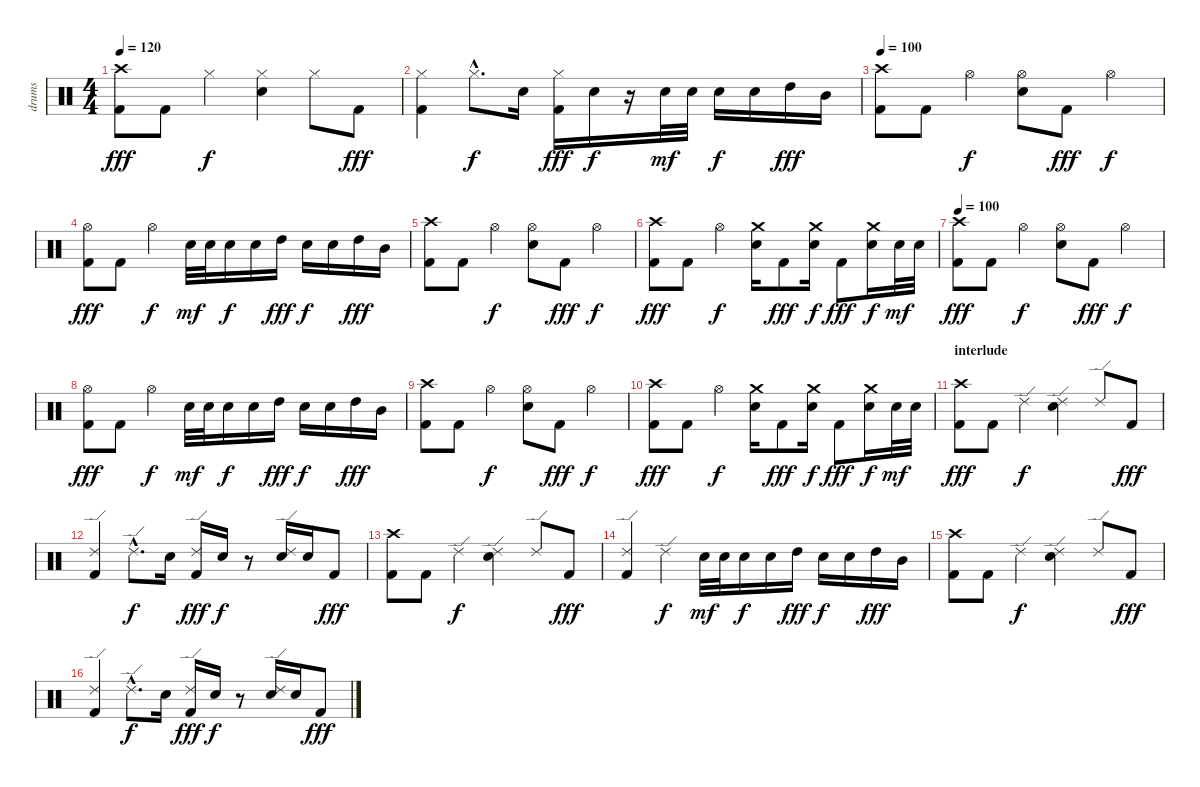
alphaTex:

\track ("drums" "drums") {instrument percussion}
\staff {score}
\articulation defaults
\ts (4 4)
\tempo 120
\clef neutral
\ks c
("Crash high (hit)" "Kick (hit) 2").8{dy fff} "Kick (hit) 2".8 "Hi-Hat (closed)".4{dy f} ("Hi-Hat (closed)" "Snare (hit) 2").4 "Hi-Hat (closed)".8 "Kick (hit) 2".8{dy fff} |
("Hi-Hat (closed)" "Kick (hit) 2").4 "Hi-Hat (closed)"{hac}.8{d dy f} "Snare (hit) 2".16 ("Hi-Hat (closed)" "Kick (hit) 2").16{dy fff} "Snare (hit) 2".16{dy f} r.16 "Snare (hit) 2".32{dy mf} "Snare (hit) 2".32 "Snare (hit) 2".16{dy f} "Snare (hit) 2".16 "High Tom (hit)".16{dy fff} "Mid Tom (hit)".16 |
\tempo 100
("Crash high (hit)" "Kick (hit) 2").8 "Kick (hit) 2".8 "Hi-Hat (open)".4{dy f} ("Hi-Hat (open)" "Snare (hit) 2").8 "Kick (hit) 2".8{dy fff} "Hi-Hat (open)".4{dy f} |
("Hi-Hat (open)" "Kick (hit) 2").8{dy fff} "Kick (hit) 2".8 "Hi-Hat (open)".4{dy f} "Snare (hit) 2".32{dy mf} "Snare (hit) 2".32 "Snare (hit) 2".16{dy f} "Snare (hit) 2".16 "High Tom (hit)".16{dy fff} "Snare (hit) 2".16{dy f} "Snare (hit) 2".16 "High Tom (hit)".16{dy fff} "Mid Tom (hit)".16 |
("Crash high (hit)" "Kick (hit) 2").8 "Kick (hit) 2".8 "Hi-Hat (open)".4{dy f} ("Hi-Hat (open)" "Snare (hit) 2").8 "Kick (hit) 2".8{dy fff} "Hi-Hat (open)".4{dy f} |
("Crash high (hit)" "Kick (hit) 2").8{dy fff} "Kick (hit) 2".8 "Hi-Hat (open)".4{dy f} ("Crash medium (hit)" "Snare (hit) 2").16 "Kick (hit) 2".8{dy fff} ("Crash medium (hit)" "Snare (hit) 2").16{dy f} "Kick (hit) 2".8{dy fff} ("Crash medium (hit)" "Snare (hit) 2").16{dy f} "Snare (hit) 2".32{dy mf} "Snare (hit) 2".32 |
\tempo 100
("Crash high (hit)" "Kick (hit) 2").8{dy fff} "Kick (hit) 2".8 "Hi-Hat (open)".4{dy f} ("Hi-Hat (open)" "Snare (hit) 2").8 "Kick (hit) 2".8{dy fff} "Hi-Hat (open)".4{dy f} |
("Hi-Hat (open)" "Kick (hit) 2").8{dy fff} "Kick (hit) 2".8 "Hi-Hat (open)".4{dy f} "Snare (hit) 2".32{dy mf} "Snare (hit) 2".32 "Snare (hit) 2".16{dy f} "Snare (hit) 2".16 "High Tom (hit)".16{dy fff} "Snare (hit) 2".16{dy f} "Snare (hit) 2".16 "High Tom (hit)".16{dy fff} "Mid Tom (hit)".16 |
("Crash high (hit)" "Kick (hit) 2").8 "Kick (hit) 2".8 "Hi-Hat (open)".4{dy f} ("Hi-Hat (open)" "Snare (hit) 2").8 "Kick (hit) 2".8{dy fff} "Hi-Hat (open)".4{dy f} |
("Crash high (hit)" "Kick (hit) 2").8{dy fff} "Kick (hit) 2".8 "Hi-Hat (open)".4{dy f} ("Crash medium (hit)" "Snare (hit) 2").16 "Kick (hit) 2".8{dy fff} ("Crash medium (hit)" "Snare (hit) 2").16{dy f} "Kick (hit) 2".8{dy fff} ("Crash medium (hit)" "Snare (hit) 2").16{dy f} "Snare (hit) 2".32{dy mf} "Snare (hit) 2".32 |
\section ("" "interlude")
("Crash high (hit)" "Kick (hit) 2").8{dy fff} "Kick (hit) 2".8 "Ride (edge) 2".4{dy f} ("Ride (edge) 2" "Snare (hit) 2").4 "Ride (edge) 2".8 "Kick (hit) 2".8{dy fff} |
("Ride (edge) 2" "Kick (hit) 2").4 "Ride (edge) 2"{hac}.8{d dy f} "Snare (hit) 2".16 ("Ride (edge) 2" "Kick (hit) 2").16{dy fff} "Snare (hit) 2".16{dy f} r.8 ("Ride (edge) 2" "Snare (hit) 2").16 "Snare (hit) 2".16 "Kick (hit) 2".8{dy fff} |
("Crash high (hit)" "Kick (hit) 2").8 "Kick (hit) 2".8 "Ride (edge) 2".4{dy f} ("Ride (edge) 2" "Snare (hit) 2").4 "Ride (edge) 2".8 "Kick (hit) 2".8{dy fff} |
("Ride (edge) 2" "Kick (hit) 2").4 "Ride (edge) 2".4{dy f} "Snare (hit) 2".32{dy mf} "Snare (hit) 2".32 "Snare (hit) 2".16{dy f} "Snare (hit) 2".16 "High Tom (hit)".16{dy fff} "Snare (hit) 2".16{dy f} "Snare (hit) 2".16 "High Tom (hit)".16{dy fff} "Mid Tom (hit)".16 |
("Crash high (hit)" "Kick (hit) 2").8 "Kick (hit) 2".8 "Ride (edge) 2".4{dy f} ("Ride (edge) 2" "Snare (hit) 2").4 "Ride (edge) 2".8 "Kick (hit) 2".8{dy fff} |
("Ride (edge) 2" "Kick (hit) 2").4 "Ride (edge) 2"{hac}.8{d dy f} "Snare (hit) 2".16 ("Ride (edge) 2" "Kick (hit) 2").16{dy fff} "Snare (hit) 2".16{dy f} r.8 ("Ride (edge) 2" "Snare (hit) 2").16 "Snare (hit) 2".16 "Kick (hit) 2".8{dy fff}
